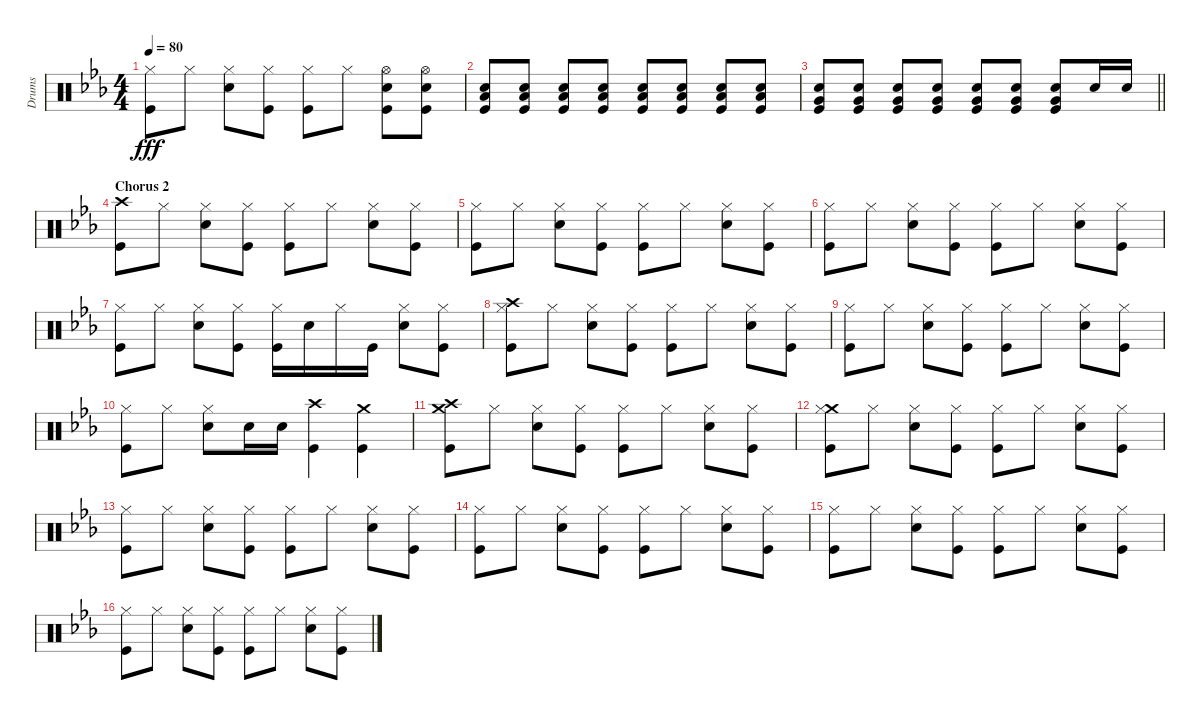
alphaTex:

\track ("Drums" "Drums") {instrument percussion}
\staff {score}
\articulation defaults
\ts (4 4)
\tempo 80
\clef neutral
\ks eb
("Kick (hit)" "Hi-Hat (closed)").8{dy fff} "Hi-Hat (closed)".8 ("Snare (hit) 2" "Hi-Hat (closed)").8 ("Kick (hit)" "Hi-Hat (closed)").8 ("Kick (hit)" "Hi-Hat (closed)").8 "Hi-Hat (closed)".8 ("Kick (hit)" "Hi-Hat (open)" "Snare (hit) 2").8 ("Hi-Hat (open)" "Snare (hit) 2" "Kick (hit)").8 |
("Low Floor Tom (hit)" "Snare (hit) 2" "Kick (hit)").8 ("Low Floor Tom (hit)" "Snare (hit) 2" "Kick (hit)").8 ("Low Floor Tom (hit)" "Snare (hit) 2" "Kick (hit)").8 ("Low Floor Tom (hit)" "Kick (hit)" "Snare (hit) 2").8 ("Low Floor Tom (hit)" "Kick (hit)" "Snare (hit) 2").8 ("Low Floor Tom (hit)" "Snare (hit) 2" "Kick (hit)").8 ("Low Floor Tom (hit)" "Snare (hit) 2" "Kick (hit)").8 ("Low Floor Tom (hit)" "Kick (hit)" "Snare (hit) 2").8 |
\barLineRight lightlight
("Very Low Tom (hit)" "Snare (hit) 2" "Kick (hit)").8 ("Very Low Tom (hit)" "Snare (hit) 2" "Kick (hit)").8 ("Very Low Tom (hit)" "Snare (hit) 2" "Kick (hit)").8 ("Very Low Tom (hit)" "Kick (hit)" "Snare (hit) 2").8 ("Very Low Tom (hit)" "Kick (hit)" "Snare (hit) 2").8 ("Very Low Tom (hit)" "Snare (hit) 2" "Kick (hit)").8 ("Very Low Tom (hit)" "Snare (hit) 2" "Kick (hit)").8 "Snare (hit) 2".16 "Snare (hit) 2".16 |
\section ("" "Chorus 2")
("Crash high (hit)" "Kick (hit)").8 "Hi-Hat (closed)".8 ("Snare (hit) 2" "Hi-Hat (closed)").8 ("Kick (hit)" "Hi-Hat (closed)").8 ("Kick (hit)" "Hi-Hat (closed)").8 "Hi-Hat (closed)".8 ("Snare (hit) 2" "Hi-Hat (closed)").8 ("Kick (hit)" "Hi-Hat (closed)").8 |
("Kick (hit)" "Hi-Hat (closed)").8 "Hi-Hat (closed)".8 ("Snare (hit) 2" "Hi-Hat (closed)").8 ("Kick (hit)" "Hi-Hat (closed)").8 ("Kick (hit)" "Hi-Hat (closed)").8 "Hi-Hat (closed)".8 ("Snare (hit) 2" "Hi-Hat (closed)").8 ("Kick (hit)" "Hi-Hat (closed)").8 |
("Kick (hit)" "Hi-Hat (closed)").8 "Hi-Hat (closed)".8 ("Snare (hit) 2" "Hi-Hat (closed)").8 ("Kick (hit)" "Hi-Hat (closed)").8 ("Kick (hit)" "Hi-Hat (closed)").8 "Hi-Hat (closed)".8 ("Snare (hit) 2" "Hi-Hat (closed)").8 ("Kick (hit)" "Hi-Hat (closed)").8 |
("Kick (hit)" "Hi-Hat (closed)").8 "Hi-Hat (closed)".8 ("Snare (hit) 2" "Hi-Hat (closed)").8 ("Kick (hit)" "Hi-Hat (closed)").8 ("Kick (hit)" "Hi-Hat (closed)").16 "Snare (hit) 2".16 "Hi-Hat (closed)".16 "Kick (hit)".16 ("Snare (hit) 2" "Hi-Hat (closed)").8 ("Kick (hit)" "Hi-Hat (closed)").8 |
("Crash high (hit)" "Kick (hit)" "Hi-Hat (closed)").8 "Hi-Hat (closed)".8 ("Snare (hit) 2" "Hi-Hat (closed)").8 ("Kick (hit)" "Hi-Hat (closed)").8 ("Kick (hit)" "Hi-Hat (closed)").8 "Hi-Hat (closed)".8 ("Snare (hit) 2" "Hi-Hat (closed)").8 ("Kick (hit)" "Hi-Hat (closed)").8 |
("Kick (hit)" "Hi-Hat (closed)").8 "Hi-Hat (closed)".8 ("Snare (hit) 2" "Hi-Hat (closed)").8 ("Kick (hit)" "Hi-Hat (closed)").8 ("Kick (hit)" "Hi-Hat (closed)").8 "Hi-Hat (closed)".8 ("Snare (hit) 2" "Hi-Hat (closed)").8 ("Kick (hit)" "Hi-Hat (closed)").8 |
("Kick (hit)" "Hi-Hat (closed)").8 "Hi-Hat (closed)".8 ("Snare (hit) 2" "Hi-Hat (closed)").8 "Snare (hit) 2".16 "Snare (hit) 2".16 ("Kick (hit)" "Crash high (hit)").4 ("Kick (hit)" "Crash medium (hit)").4 |
("Crash high (hit)" "Crash medium (hit)" "Kick (hit)").8 "Hi-Hat (closed)".8 ("Snare (hit) 2" "Hi-Hat (closed)").8 ("Kick (hit)" "Hi-Hat (closed)").8 ("Kick (hit)" "Hi-Hat (closed)").8 "Hi-Hat (closed)".8 ("Snare (hit) 2" "Hi-Hat (closed)").8 ("Kick (hit)" "Hi-Hat (closed)").8 |
("Crash medium (hit)" "Kick (hit)" "Hi-Hat (closed)").8 "Hi-Hat (closed)".8 ("Snare (hit) 2" "Hi-Hat (closed)").8 ("Kick (hit)" "Hi-Hat (closed)").8 ("Kick (hit)" "Hi-Hat (closed)").8 "Hi-Hat (closed)".8 ("Snare (hit) 2" "Hi-Hat (closed)").8 ("Kick (hit)" "Hi-Hat (closed)").8 |
("Kick (hit)" "Hi-Hat (closed)").8 "Hi-Hat (closed)".8 ("Snare (hit) 2" "Hi-Hat (closed)").8 ("Kick (hit)" "Hi-Hat (closed)").8 ("Kick (hit)" "Hi-Hat (closed)").8 "Hi-Hat (closed)".8 ("Snare (hit) 2" "Hi-Hat (closed)").8 ("Kick (hit)" "Hi-Hat (closed)").8 |
("Kick (hit)" "Hi-Hat (closed)").8 "Hi-Hat (closed)".8 ("Snare (hit) 2" "Hi-Hat (closed)").8 ("Kick (hit)" "Hi-Hat (closed)").8 ("Kick (hit)" "Hi-Hat (closed)").8 "Hi-Hat (closed)".8 ("Snare (hit) 2" "Hi-Hat (closed)").8 ("Kick (hit)" "Hi-Hat (closed)").8 |
("Kick (hit)" "Hi-Hat (closed)").8 "Hi-Hat (closed)".8 ("Snare (hit) 2" "Hi-Hat (closed)").8 ("Kick (hit)" "Hi-Hat (closed)").8 ("Kick (hit)" "Hi-Hat (closed)").8 "Hi-Hat (closed)".8 ("Snare (hit) 2" "Hi-Hat (closed)").8 ("Kick (hit)" "Hi-Hat (closed)").8 |
("Kick (hit)" "Hi-Hat (closed)").8 "Hi-Hat (closed)".8 ("Snare (hit) 2" "Hi-Hat (closed)").8 ("Kick (hit)" "Hi-Hat (closed)").8 ("Kick (hit)" "Hi-Hat (closed)").8 "Hi-Hat (closed)".8 ("Snare (hit) 2" "Hi-Hat (closed)").8 ("Kick (hit)" "Hi-Hat (closed)").8
